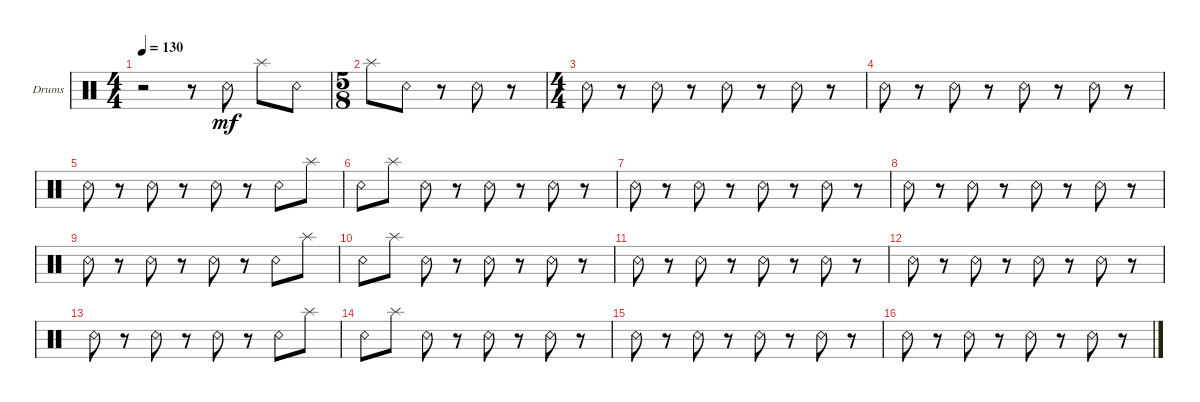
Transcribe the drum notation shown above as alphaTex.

\defaultSystemsLayout 4
\bracketExtendMode groupsimilarinstruments
\firstSystemTrackNameOrientation horizontal
\otherSystemsTrackNameOrientation horizontal
\track ("Drumkit" "Drums") {instrument percussion}
\staff {score}
\articulation defaults
\ts (4 4)
\tempo 130
\clef neutral
\ks c
r.2{dy mf} r.8 "Snare (rim shot)".8 "Splash (hit)".8 "Snare (rim shot)".8 |
\ts (5 8)
\scale
0.474178 "Splash (hit)".8 "Snare (rim shot)".8 r.8 "Snare (rim shot)".8 r.8 |
\ts (4 4)
\scale
0.262911 "Snare (rim shot)".8 r.8 "Snare (rim shot)".8 r.8 "Snare (rim shot)".8 r.8 "Snare (rim shot)".8 r.8 |
\scale
0.262911 "Snare (rim shot)".8 r.8 "Snare (rim shot)".8 r.8 "Snare (rim shot)".8 r.8 "Snare (rim shot)".8 r.8 |
\scale
0.333333 "Snare (rim shot)".8 r.8 "Snare (rim shot)".8 r.8 "Snare (rim shot)".8 r.8 "Snare (rim shot)".8 "Splash (hit)".8 |
\scale
0.333333 "Snare (rim shot)".8 "Splash (hit)".8 "Snare (rim shot)".8 r.8 "Snare (rim shot)".8 r.8 "Snare (rim shot)".8 r.8 |
\scale
0.333333 "Snare (rim shot)".8 r.8 "Snare (rim shot)".8 r.8 "Snare (rim shot)".8 r.8 "Snare (rim shot)".8 r.8 |
\scale
0.333333 "Snare (rim shot)".8 r.8 "Snare (rim shot)".8 r.8 "Snare (rim shot)".8 r.8 "Snare (rim shot)".8 r.8 |
\scale
0.333333 "Snare (rim shot)".8 r.8 "Snare (rim shot)".8 r.8 "Snare (rim shot)".8 r.8 "Snare (rim shot)".8 "Splash (hit)".8 |
\scale
0.333333 "Snare (rim shot)".8 "Splash (hit)".8 "Snare (rim shot)".8 r.8 "Snare (rim shot)".8 r.8 "Snare (rim shot)".8 r.8 |
\scale
0.333333 "Snare (rim shot)".8 r.8 "Snare (rim shot)".8 r.8 "Snare (rim shot)".8 r.8 "Snare (rim shot)".8 r.8 |
\scale
0.333333 "Snare (rim shot)".8 r.8 "Snare (rim shot)".8 r.8 "Snare (rim shot)".8 r.8 "Snare (rim shot)".8 r.8 |
\scale
0.333333 "Snare (rim shot)".8 r.8 "Snare (rim shot)".8 r.8 "Snare (rim shot)".8 r.8 "Snare (rim shot)".8 "Splash (hit)".8 |
\scale
0.333333 "Snare (rim shot)".8 "Splash (hit)".8 "Snare (rim shot)".8 r.8 "Snare (rim shot)".8 r.8 "Snare (rim shot)".8 r.8 |
\scale
0.333333 "Snare (rim shot)".8 r.8 "Snare (rim shot)".8 r.8 "Snare (rim shot)".8 r.8 "Snare (rim shot)".8 r.8 |
\scale
0.333333 "Snare (rim shot)".8 r.8 "Snare (rim shot)".8 r.8 "Snare (rim shot)".8 r.8 "Snare (rim shot)".8 r.8
